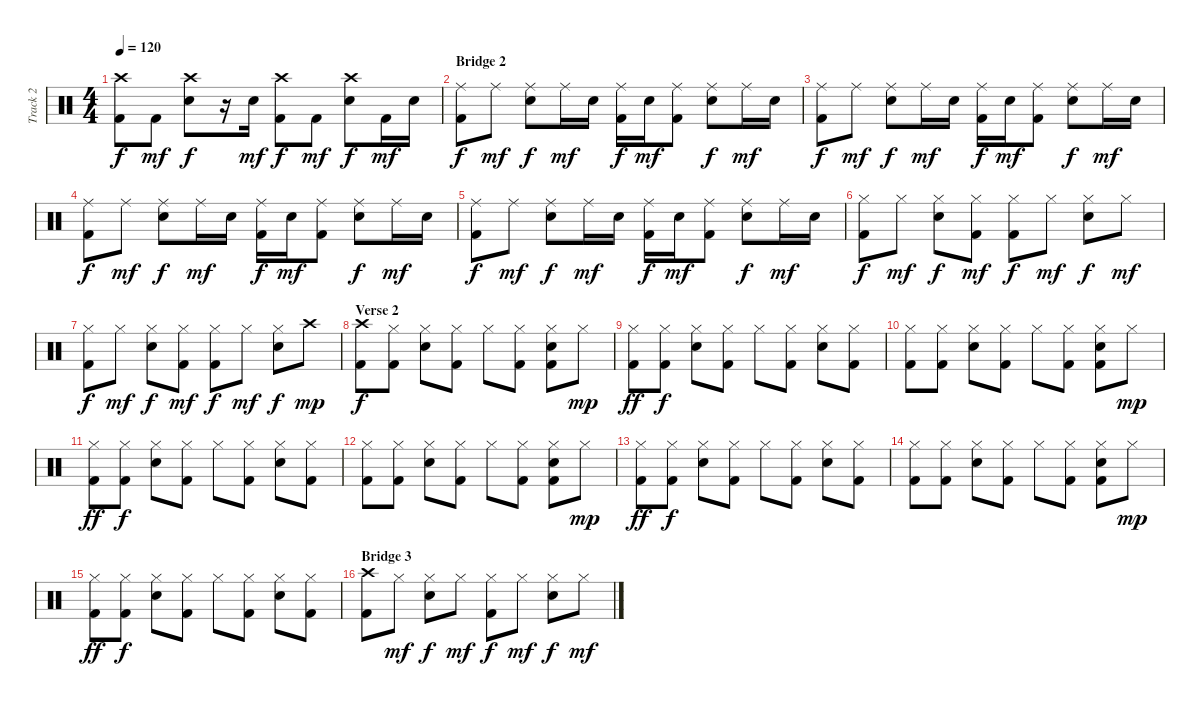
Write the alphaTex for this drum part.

\track ("Track 2" "Track 2") {instrument percussion}
\staff {score}
\articulation defaults
\ts (4 4)
\tempo 120
\clef neutral
\ks c
("Crash high (hit)" "Kick (hit) 2").8{dy f} "Kick (hit) 2".8{dy mf} ("Crash high (hit)" "Electric Snare (hit)").8{dy f} r.16 "Electric Snare (hit)".16{dy mf} ("Crash high (hit)" "Kick (hit) 2").8{dy f} "Kick (hit) 2".8{dy mf} ("Crash high (hit)" "Electric Snare (hit)").8{dy f} "Kick (hit) 2".16{dy mf} "Electric Snare (hit)".16 |
\section ("" "Bridge 2")
("Ride (middle)" "Kick (hit) 2").8{dy f} "Ride (middle)".8{dy mf} ("Ride (middle)" "Electric Snare (hit)").8{dy f} "Ride (middle)".16{dy mf} "Electric Snare (hit)".16 ("Ride (middle)" "Kick (hit) 2").16{dy f} "Electric Snare (hit)".16{dy mf} ("Ride (middle)" "Kick (hit) 2").8 ("Ride (middle)" "Electric Snare (hit)").8{dy f} "Ride (middle)".16{dy mf} "Electric Snare (hit)".16 |
("Ride (middle)" "Kick (hit) 2").8{dy f} "Ride (middle)".8{dy mf} ("Ride (middle)" "Electric Snare (hit)").8{dy f} "Ride (middle)".16{dy mf} "Electric Snare (hit)".16 ("Ride (middle)" "Kick (hit) 2").16{dy f} "Electric Snare (hit)".16{dy mf} ("Ride (middle)" "Kick (hit) 2").8 ("Ride (middle)" "Electric Snare (hit)").8{dy f} "Ride (middle)".16{dy mf} "Electric Snare (hit)".16 |
("Ride (middle)" "Kick (hit) 2").8{dy f} "Ride (middle)".8{dy mf} ("Ride (middle)" "Electric Snare (hit)").8{dy f} "Ride (middle)".16{dy mf} "Electric Snare (hit)".16 ("Ride (middle)" "Kick (hit) 2").16{dy f} "Electric Snare (hit)".16{dy mf} ("Ride (middle)" "Kick (hit) 2").8 ("Ride (middle)" "Electric Snare (hit)").8{dy f} "Ride (middle)".16{dy mf} "Electric Snare (hit)".16 |
("Ride (middle)" "Kick (hit) 2").8{dy f} "Ride (middle)".8{dy mf} ("Ride (middle)" "Electric Snare (hit)").8{dy f} "Ride (middle)".16{dy mf} "Electric Snare (hit)".16 ("Ride (middle)" "Kick (hit) 2").16{dy f} "Electric Snare (hit)".16{dy mf} ("Ride (middle)" "Kick (hit) 2").8 ("Ride (middle)" "Electric Snare (hit)").8{dy f} "Ride (middle)".16{dy mf} "Electric Snare (hit)".16 |
("Hi-Hat (closed)" "Kick (hit) 2").8{dy f} "Hi-Hat (closed)".8{dy mf} ("Hi-Hat (closed)" "Electric Snare (hit)").8{dy f} ("Hi-Hat (closed)" "Kick (hit) 2").8{dy mf} ("Hi-Hat (closed)" "Kick (hit) 2").8{dy f} "Hi-Hat (closed)".8{dy mf} ("Hi-Hat (closed)" "Electric Snare (hit)").8{dy f} "Hi-Hat (closed)".8{dy mf} |
("Hi-Hat (closed)" "Kick (hit) 2").8{dy f} "Hi-Hat (closed)".8{dy mf} ("Hi-Hat (closed)" "Electric Snare (hit)").8{dy f} ("Hi-Hat (closed)" "Kick (hit) 2").8{dy mf} ("Hi-Hat (closed)" "Kick (hit) 2").8{dy f} "Hi-Hat (closed)".8{dy mf} ("Hi-Hat (closed)" "Electric Snare (hit)").8{dy f} "Crash high (hit)".8{dy mp} |
\section ("" "Verse 2")
("Crash high (hit)" "Kick (hit) 2").8{dy f} ("Hi-Hat (closed)" "Kick (hit) 2").8 ("Hi-Hat (closed)" "Electric Snare (hit)").8 ("Hi-Hat (closed)" "Kick (hit) 2").8 "Hi-Hat (closed)".8 ("Hi-Hat (closed)" "Kick (hit) 2").8 ("Hi-Hat (closed)" "Electric Snare (hit)" "Kick (hit) 2").8 "Hi-Hat (closed)".8{dy mp} |
("Hi-Hat (closed)" "Kick (hit) 2").8{dy ff} ("Hi-Hat (closed)" "Kick (hit) 2").8{dy f} ("Hi-Hat (closed)" "Electric Snare (hit)").8 ("Hi-Hat (closed)" "Kick (hit) 2").8 "Hi-Hat (closed)".8 ("Hi-Hat (closed)" "Kick (hit) 2").8 ("Hi-Hat (closed)" "Electric Snare (hit)").8 ("Hi-Hat (closed)" "Kick (hit) 2").8 |
("Hi-Hat (closed)" "Kick (hit) 2").8 ("Hi-Hat (closed)" "Kick (hit) 2").8 ("Hi-Hat (closed)" "Electric Snare (hit)").8 ("Hi-Hat (closed)" "Kick (hit) 2").8 "Hi-Hat (closed)".8 ("Hi-Hat (closed)" "Kick (hit) 2").8 ("Hi-Hat (closed)" "Electric Snare (hit)" "Kick (hit) 2").8 "Hi-Hat (closed)".8{dy mp} |
("Hi-Hat (closed)" "Kick (hit) 2").8{dy ff} ("Hi-Hat (closed)" "Kick (hit) 2").8{dy f} ("Hi-Hat (closed)" "Electric Snare (hit)").8 ("Hi-Hat (closed)" "Kick (hit) 2").8 "Hi-Hat (closed)".8 ("Hi-Hat (closed)" "Kick (hit) 2").8 ("Hi-Hat (closed)" "Electric Snare (hit)").8 ("Hi-Hat (closed)" "Kick (hit) 2").8 |
("Hi-Hat (closed)" "Kick (hit) 2").8 ("Hi-Hat (closed)" "Kick (hit) 2").8 ("Hi-Hat (closed)" "Electric Snare (hit)").8 ("Hi-Hat (closed)" "Kick (hit) 2").8 "Hi-Hat (closed)".8 ("Hi-Hat (closed)" "Kick (hit) 2").8 ("Hi-Hat (closed)" "Electric Snare (hit)" "Kick (hit) 2").8 "Hi-Hat (closed)".8{dy mp} |
("Hi-Hat (closed)" "Kick (hit) 2").8{dy ff} ("Hi-Hat (closed)" "Kick (hit) 2").8{dy f} ("Hi-Hat (closed)" "Electric Snare (hit)").8 ("Hi-Hat (closed)" "Kick (hit) 2").8 "Hi-Hat (closed)".8 ("Hi-Hat (closed)" "Kick (hit) 2").8 ("Hi-Hat (closed)" "Electric Snare (hit)").8 ("Hi-Hat (closed)" "Kick (hit) 2").8 |
("Hi-Hat (closed)" "Kick (hit) 2").8 ("Hi-Hat (closed)" "Kick (hit) 2").8 ("Hi-Hat (closed)" "Electric Snare (hit)").8 ("Hi-Hat (closed)" "Kick (hit) 2").8 "Hi-Hat (closed)".8 ("Hi-Hat (closed)" "Kick (hit) 2").8 ("Hi-Hat (closed)" "Electric Snare (hit)" "Kick (hit) 2").8 "Hi-Hat (closed)".8{dy mp} |
("Hi-Hat (closed)" "Kick (hit) 2").8{dy ff} ("Hi-Hat (closed)" "Kick (hit) 2").8{dy f} ("Hi-Hat (closed)" "Electric Snare (hit)").8 ("Hi-Hat (closed)" "Kick (hit) 2").8 "Hi-Hat (closed)".8 ("Hi-Hat (closed)" "Kick (hit) 2").8 ("Hi-Hat (closed)" "Electric Snare (hit)").8 ("Hi-Hat (closed)" "Kick (hit) 2").8 |
\section ("" "Bridge 3")
("Crash high (hit)" "Kick (hit) 2").8 "Hi-Hat (closed)".8{dy mf} ("Hi-Hat (closed)" "Electric Snare (hit)").8{dy f} "Hi-Hat (closed)".8{dy mf} ("Hi-Hat (closed)" "Kick (hit) 2").8{dy f} "Hi-Hat (closed)".8{dy mf} ("Hi-Hat (closed)" "Electric Snare (hit)").8{dy f} "Hi-Hat (closed)".8{dy mf}
